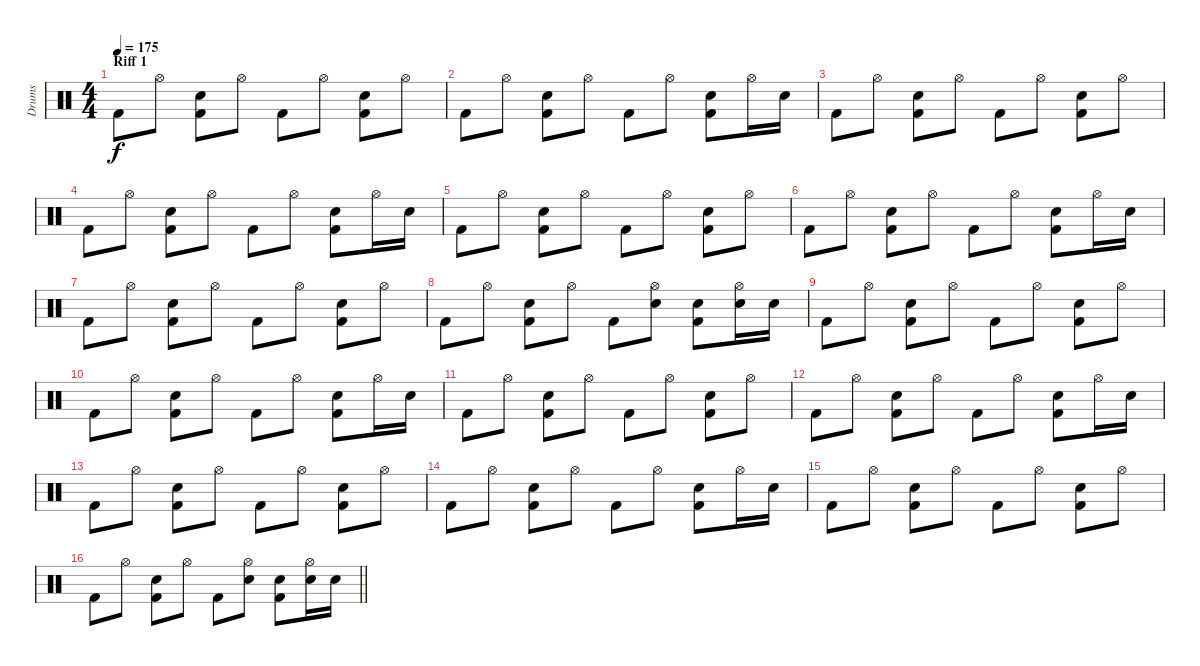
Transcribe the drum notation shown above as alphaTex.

\track ("Drums" "Drums") {instrument percussion}
\staff {score}
\articulation defaults
\ts (4 4)
\section ("" "Riff 1")
\tempo 175
\clef neutral
\ks c "Kick (hit) 2".8{dy f} "Hi-Hat (open)".8
("Kick (hit) 2" "Snare (hit) 2").8 "Hi-Hat (open)".8 "Kick (hit) 2".8 "Hi-Hat (open)".8 ("Kick (hit) 2" "Snare (hit) 2").8 "Hi-Hat (open)".8 |
"Kick (hit) 2".8 "Hi-Hat (open)".8 ("Kick (hit) 2" "Snare (hit) 2").8 "Hi-Hat (open)".8 "Kick (hit) 2".8 "Hi-Hat (open)".8 ("Kick (hit) 2" "Snare (hit) 2").8 "Hi-Hat (open)".16 "Snare (hit) 2".16 |
"Kick (hit) 2".8 "Hi-Hat (open)".8 ("Kick (hit) 2" "Snare (hit) 2").8 "Hi-Hat (open)".8 "Kick (hit) 2".8 "Hi-Hat (open)".8 ("Kick (hit) 2" "Snare (hit) 2").8 "Hi-Hat (open)".8 |
"Kick (hit) 2".8 "Hi-Hat (open)".8 ("Kick (hit) 2" "Snare (hit) 2").8 "Hi-Hat (open)".8 "Kick (hit) 2".8 "Hi-Hat (open)".8 ("Kick (hit) 2" "Snare (hit) 2").8 "Hi-Hat (open)".16 "Snare (hit) 2".16 |
"Kick (hit) 2".8 "Hi-Hat (open)".8 ("Kick (hit) 2" "Snare (hit) 2").8 "Hi-Hat (open)".8 "Kick (hit) 2".8 "Hi-Hat (open)".8 ("Kick (hit) 2" "Snare (hit) 2").8 "Hi-Hat (open)".8 |
"Kick (hit) 2".8 "Hi-Hat (open)".8 ("Kick (hit) 2" "Snare (hit) 2").8 "Hi-Hat (open)".8 "Kick (hit) 2".8 "Hi-Hat (open)".8 ("Kick (hit) 2" "Snare (hit) 2").8 "Hi-Hat (open)".16 "Snare (hit) 2".16 |
"Kick (hit) 2".8 "Hi-Hat (open)".8 ("Kick (hit) 2" "Snare (hit) 2").8 "Hi-Hat (open)".8 "Kick (hit) 2".8 "Hi-Hat (open)".8 ("Kick (hit) 2" "Snare (hit) 2").8 "Hi-Hat (open)".8 |
"Kick (hit) 2".8 "Hi-Hat (open)".8 ("Kick (hit) 2" "Snare (hit) 2").8 "Hi-Hat (open)".8 "Kick (hit) 2".8 ("Hi-Hat (open)" "Snare (hit) 2").8 ("Kick (hit) 2" "Snare (hit) 2").8 ("Hi-Hat (open)" "Snare (hit) 2").16 "Snare (hit) 2".16 |
"Kick (hit) 2".8 "Hi-Hat (open)".8 ("Kick (hit) 2" "Snare (hit) 2").8 "Hi-Hat (open)".8 "Kick (hit) 2".8 "Hi-Hat (open)".8 ("Kick (hit) 2" "Snare (hit) 2").8 "Hi-Hat (open)".8 |
"Kick (hit) 2".8 "Hi-Hat (open)".8 ("Kick (hit) 2" "Snare (hit) 2").8 "Hi-Hat (open)".8 "Kick (hit) 2".8 "Hi-Hat (open)".8 ("Kick (hit) 2" "Snare (hit) 2").8 "Hi-Hat (open)".16 "Snare (hit) 2".16 |
"Kick (hit) 2".8 "Hi-Hat (open)".8 ("Kick (hit) 2" "Snare (hit) 2").8 "Hi-Hat (open)".8 "Kick (hit) 2".8 "Hi-Hat (open)".8 ("Kick (hit) 2" "Snare (hit) 2").8 "Hi-Hat (open)".8 |
"Kick (hit) 2".8 "Hi-Hat (open)".8 ("Kick (hit) 2" "Snare (hit) 2").8 "Hi-Hat (open)".8 "Kick (hit) 2".8 "Hi-Hat (open)".8 ("Kick (hit) 2" "Snare (hit) 2").8 "Hi-Hat (open)".16 "Snare (hit) 2".16 |
"Kick (hit) 2".8 "Hi-Hat (open)".8 ("Kick (hit) 2" "Snare (hit) 2").8 "Hi-Hat (open)".8 "Kick (hit) 2".8 "Hi-Hat (open)".8 ("Kick (hit) 2" "Snare (hit) 2").8 "Hi-Hat (open)".8 |
"Kick (hit) 2".8 "Hi-Hat (open)".8 ("Kick (hit) 2" "Snare (hit) 2").8 "Hi-Hat (open)".8 "Kick (hit) 2".8 "Hi-Hat (open)".8 ("Kick (hit) 2" "Snare (hit) 2").8 "Hi-Hat (open)".16 "Snare (hit) 2".16 |
"Kick (hit) 2".8 "Hi-Hat (open)".8 ("Kick (hit) 2" "Snare (hit) 2").8 "Hi-Hat (open)".8 "Kick (hit) 2".8 "Hi-Hat (open)".8 ("Kick (hit) 2" "Snare (hit) 2").8 "Hi-Hat (open)".8 |
\barLineRight lightlight "Kick (hit) 2".8 "Hi-Hat (open)".8
("Kick (hit) 2" "Snare (hit) 2").8 "Hi-Hat (open)".8 "Kick (hit) 2".8 ("Hi-Hat (open)" "Snare (hit) 2").8 ("Kick (hit) 2" "Snare (hit) 2").8 ("Hi-Hat (open)" "Snare (hit) 2").16 "Snare (hit) 2".16
